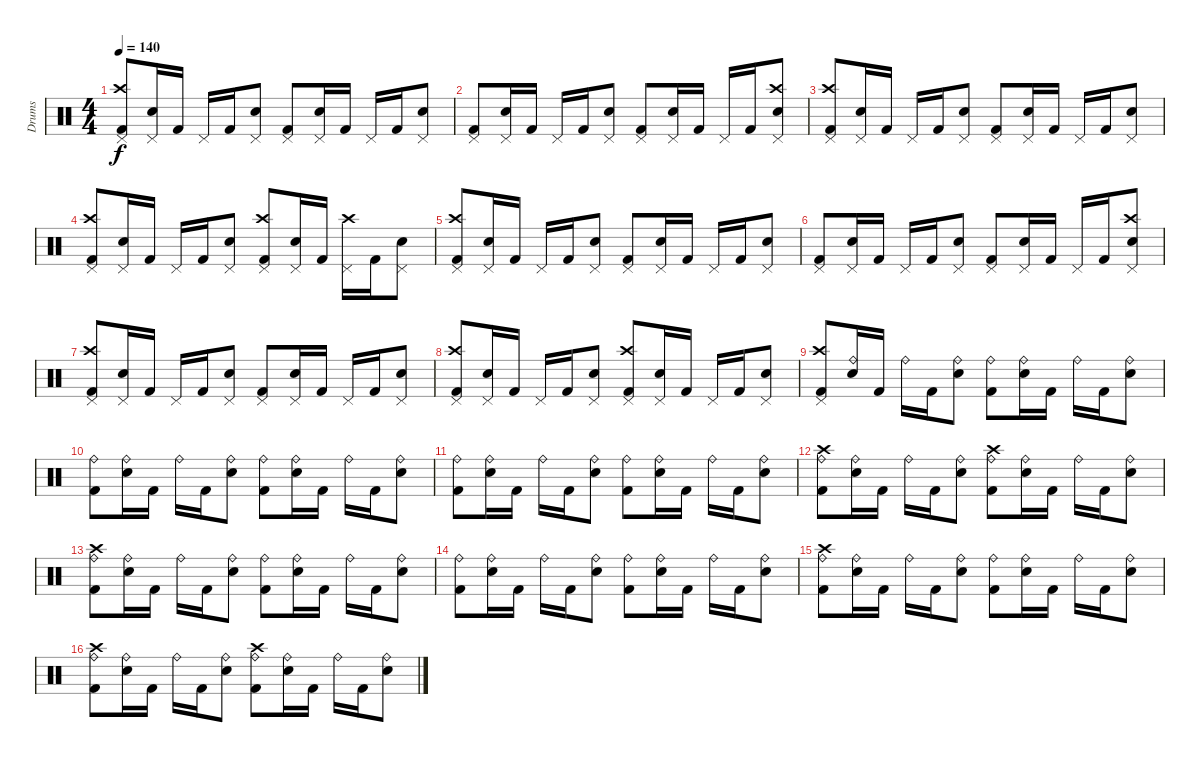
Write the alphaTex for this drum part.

\track ("Drums" "Drums") {instrument percussion}
\staff {score}
\articulation defaults
\ts (4 4)
\tempo 140
\clef neutral
\ks c
("Pedal Hi-Hat (hit)" "Crash high (hit)" "Kick (hit) 2").8{dy f} ("Pedal Hi-Hat (hit)" "Electric Snare (hit)").16 "Kick (hit) 2".16 "Pedal Hi-Hat (hit)".16 "Kick (hit) 2".16 ("Pedal Hi-Hat (hit)" "Electric Snare (hit)").8 ("Pedal Hi-Hat (hit)" "Kick (hit) 2").8 ("Pedal Hi-Hat (hit)" "Electric Snare (hit)").16 "Kick (hit) 2".16 "Pedal Hi-Hat (hit)".16 "Kick (hit) 2".16 ("Pedal Hi-Hat (hit)" "Electric Snare (hit)").8 |
("Pedal Hi-Hat (hit)" "Kick (hit) 2").8 ("Pedal Hi-Hat (hit)" "Electric Snare (hit)").16 "Kick (hit) 2".16 "Pedal Hi-Hat (hit)".16 "Kick (hit) 2".16 ("Pedal Hi-Hat (hit)" "Electric Snare (hit)").8 ("Pedal Hi-Hat (hit)" "Kick (hit) 2").8 ("Pedal Hi-Hat (hit)" "Electric Snare (hit)").16 "Kick (hit) 2".16 "Pedal Hi-Hat (hit)".16 "Kick (hit) 2".16 ("Pedal Hi-Hat (hit)" "Electric Snare (hit)" "Crash high (hit)").8 |
("Pedal Hi-Hat (hit)" "Crash high (hit)" "Kick (hit) 2").8 ("Pedal Hi-Hat (hit)" "Electric Snare (hit)").16 "Kick (hit) 2".16 "Pedal Hi-Hat (hit)".16 "Kick (hit) 2".16 ("Pedal Hi-Hat (hit)" "Electric Snare (hit)").8 ("Pedal Hi-Hat (hit)" "Kick (hit) 2").8 ("Pedal Hi-Hat (hit)" "Electric Snare (hit)").16 "Kick (hit) 2".16 "Pedal Hi-Hat (hit)".16 "Kick (hit) 2".16 ("Pedal Hi-Hat (hit)" "Electric Snare (hit)").8 |
("Pedal Hi-Hat (hit)" "Crash high (hit)" "Kick (hit) 2").8 ("Pedal Hi-Hat (hit)" "Electric Snare (hit)").16 "Kick (hit) 2".16 "Pedal Hi-Hat (hit)".16 "Kick (hit) 2".16 ("Pedal Hi-Hat (hit)" "Electric Snare (hit)").8 ("Pedal Hi-Hat (hit)" "Crash high (hit)" "Kick (hit) 2").8 ("Pedal Hi-Hat (hit)" "Electric Snare (hit)").16 "Kick (hit) 2".16 ("Pedal Hi-Hat (hit)" "Crash high (hit)").16 "Kick (hit) 2".16 ("Pedal Hi-Hat (hit)" "Electric Snare (hit)").8 |
("Pedal Hi-Hat (hit)" "Crash high (hit)" "Kick (hit) 2").8 ("Pedal Hi-Hat (hit)" "Electric Snare (hit)").16 "Kick (hit) 2".16 "Pedal Hi-Hat (hit)".16 "Kick (hit) 2".16 ("Pedal Hi-Hat (hit)" "Electric Snare (hit)").8 ("Pedal Hi-Hat (hit)" "Kick (hit) 2").8 ("Pedal Hi-Hat (hit)" "Electric Snare (hit)").16 "Kick (hit) 2".16 "Pedal Hi-Hat (hit)".16 "Kick (hit) 2".16 ("Pedal Hi-Hat (hit)" "Electric Snare (hit)").8 |
("Pedal Hi-Hat (hit)" "Kick (hit) 2").8 ("Pedal Hi-Hat (hit)" "Electric Snare (hit)").16 "Kick (hit) 2".16 "Pedal Hi-Hat (hit)".16 "Kick (hit) 2".16 ("Pedal Hi-Hat (hit)" "Electric Snare (hit)").8 ("Pedal Hi-Hat (hit)" "Kick (hit) 2").8 ("Pedal Hi-Hat (hit)" "Electric Snare (hit)").16 "Kick (hit) 2".16 "Pedal Hi-Hat (hit)".16 "Kick (hit) 2".16 ("Pedal Hi-Hat (hit)" "Electric Snare (hit)" "Crash high (hit)").8 |
("Pedal Hi-Hat (hit)" "Crash high (hit)" "Kick (hit) 2").8 ("Pedal Hi-Hat (hit)" "Electric Snare (hit)").16 "Kick (hit) 2".16 "Pedal Hi-Hat (hit)".16 "Kick (hit) 2".16 ("Pedal Hi-Hat (hit)" "Electric Snare (hit)").8 ("Pedal Hi-Hat (hit)" "Kick (hit) 2").8 ("Pedal Hi-Hat (hit)" "Electric Snare (hit)").16 "Kick (hit) 2".16 "Pedal Hi-Hat (hit)".16 "Kick (hit) 2".16 ("Pedal Hi-Hat (hit)" "Electric Snare (hit)").8 |
("Pedal Hi-Hat (hit)" "Crash high (hit)" "Kick (hit) 2").8 ("Pedal Hi-Hat (hit)" "Electric Snare (hit)").16 "Kick (hit) 2".16 "Pedal Hi-Hat (hit)".16 "Kick (hit) 2".16 ("Pedal Hi-Hat (hit)" "Electric Snare (hit)").8 ("Pedal Hi-Hat (hit)" "Crash high (hit)" "Kick (hit) 2").8 ("Pedal Hi-Hat (hit)" "Electric Snare (hit)").16 "Kick (hit) 2".16 "Pedal Hi-Hat (hit)".16 "Kick (hit) 2".16 ("Pedal Hi-Hat (hit)" "Electric Snare (hit)").8 |
("Pedal Hi-Hat (hit)" "Crash high (hit)" "Kick (hit) 2").8 ("Ride (bell)" "Electric Snare (hit)").16 "Kick (hit) 2".16 "Ride (bell)".16 "Kick (hit) 2".16 ("Ride (bell)" "Electric Snare (hit)").8 ("Ride (bell)" "Kick (hit) 2").8 ("Ride (bell)" "Electric Snare (hit)").16 "Kick (hit) 2".16 "Ride (bell)".16 "Kick (hit) 2".16 ("Ride (bell)" "Electric Snare (hit)").8 |
("Ride (bell)" "Kick (hit) 2").8 ("Ride (bell)" "Electric Snare (hit)").16 "Kick (hit) 2".16 "Ride (bell)".16 "Kick (hit) 2".16 ("Ride (bell)" "Electric Snare (hit)").8 ("Ride (bell)" "Kick (hit) 2").8 ("Ride (bell)" "Electric Snare (hit)").16 "Kick (hit) 2".16 "Ride (bell)".16 "Kick (hit) 2".16 ("Ride (bell)" "Electric Snare (hit)").8 |
("Ride (bell)" "Kick (hit) 2").8 ("Ride (bell)" "Electric Snare (hit)").16 "Kick (hit) 2".16 "Ride (bell)".16 "Kick (hit) 2".16 ("Ride (bell)" "Electric Snare (hit)").8 ("Ride (bell)" "Kick (hit) 2").8 ("Ride (bell)" "Electric Snare (hit)").16 "Kick (hit) 2".16 "Ride (bell)".16 "Kick (hit) 2".16 ("Ride (bell)" "Electric Snare (hit)").8 |
("Ride (bell)" "Crash high (hit)" "Kick (hit) 2").8 ("Ride (bell)" "Electric Snare (hit)").16 "Kick (hit) 2".16 "Ride (bell)".16 "Kick (hit) 2".16 ("Ride (bell)" "Electric Snare (hit)").8 ("Ride (bell)" "Crash high (hit)" "Kick (hit) 2").8 ("Ride (bell)" "Electric Snare (hit)").16 "Kick (hit) 2".16 "Ride (bell)".16 "Kick (hit) 2".16 ("Ride (bell)" "Electric Snare (hit)").8 |
("Ride (bell)" "Crash high (hit)" "Kick (hit) 2").8 ("Ride (bell)" "Electric Snare (hit)").16 "Kick (hit) 2".16 "Ride (bell)".16 "Kick (hit) 2".16 ("Ride (bell)" "Electric Snare (hit)").8 ("Ride (bell)" "Kick (hit) 2").8 ("Ride (bell)" "Electric Snare (hit)").16 "Kick (hit) 2".16 "Ride (bell)".16 "Kick (hit) 2".16 ("Ride (bell)" "Electric Snare (hit)").8 |
("Ride (bell)" "Kick (hit) 2").8 ("Ride (bell)" "Electric Snare (hit)").16 "Kick (hit) 2".16 "Ride (bell)".16 "Kick (hit) 2".16 ("Ride (bell)" "Electric Snare (hit)").8 ("Ride (bell)" "Kick (hit) 2").8 ("Ride (bell)" "Electric Snare (hit)").16 "Kick (hit) 2".16 "Ride (bell)".16 "Kick (hit) 2".16 ("Ride (bell)" "Electric Snare (hit)").8 |
("Ride (bell)" "Crash high (hit)" "Kick (hit) 2").8 ("Ride (bell)" "Electric Snare (hit)").16 "Kick (hit) 2".16 "Ride (bell)".16 "Kick (hit) 2".16 ("Ride (bell)" "Electric Snare (hit)").8 ("Ride (bell)" "Kick (hit) 2").8 ("Ride (bell)" "Electric Snare (hit)").16 "Kick (hit) 2".16 "Ride (bell)".16 "Kick (hit) 2".16 ("Ride (bell)" "Electric Snare (hit)").8 |
("Ride (bell)" "Crash high (hit)" "Kick (hit) 2").8 ("Ride (bell)" "Electric Snare (hit)").16 "Kick (hit) 2".16 "Ride (bell)".16 "Kick (hit) 2".16 ("Ride (bell)" "Electric Snare (hit)").8 ("Ride (bell)" "Crash high (hit)" "Kick (hit) 2").8 ("Ride (bell)" "Electric Snare (hit)").16 "Kick (hit) 2".16 "Ride (bell)".16 "Kick (hit) 2".16 ("Ride (bell)" "Electric Snare (hit)").8
